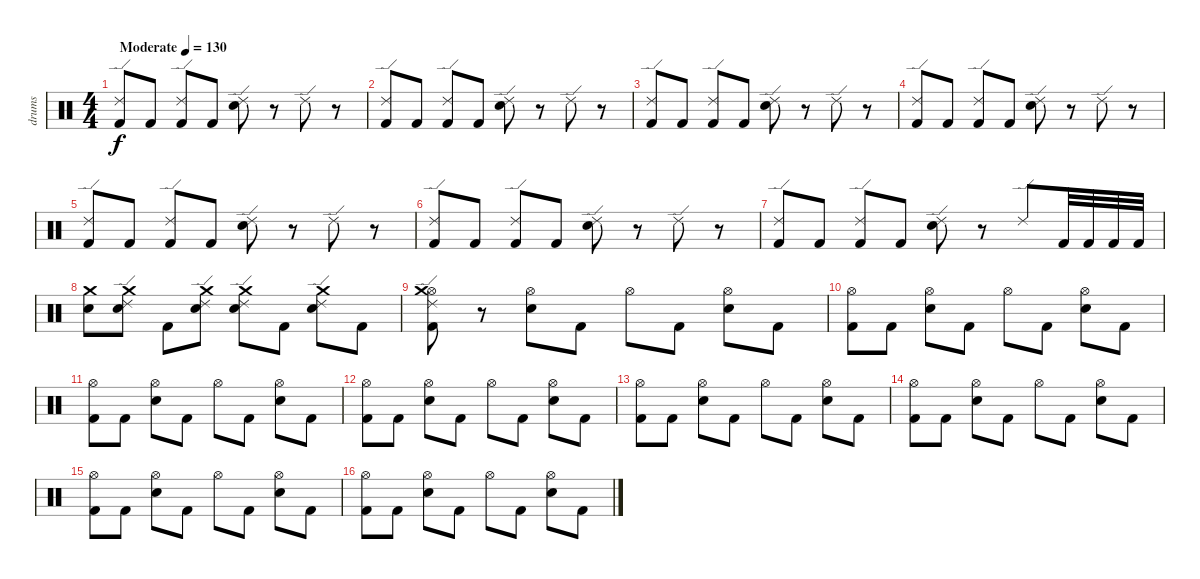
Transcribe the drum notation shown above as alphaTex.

\track ("drums" "drums") {instrument percussion}
\staff {score}
\articulation defaults
\ts (4 4)
\tempo (130 "Moderate")
\clef neutral
\ks c
("Ride (edge) 2" "Kick (hit) 2").8{dy f} "Kick (hit) 2".8 ("Ride (edge) 2" "Kick (hit) 2").8 "Kick (hit) 2".8 ("Ride (edge) 2" "Snare (hit) 2").8 r.8 "Ride (edge) 2".8 r.8 |
("Ride (edge) 2" "Kick (hit) 2").8 "Kick (hit) 2".8 ("Ride (edge) 2" "Kick (hit) 2").8 "Kick (hit) 2".8 ("Ride (edge) 2" "Snare (hit) 2").8 r.8 "Ride (edge) 2".8 r.8 |
("Ride (edge) 2" "Kick (hit) 2").8 "Kick (hit) 2".8 ("Ride (edge) 2" "Kick (hit) 2").8 "Kick (hit) 2".8 ("Ride (edge) 2" "Snare (hit) 2").8 r.8 "Ride (edge) 2".8 r.8 |
("Ride (edge) 2" "Kick (hit) 2").8 "Kick (hit) 2".8 ("Ride (edge) 2" "Kick (hit) 2").8 "Kick (hit) 2".8 ("Ride (edge) 2" "Snare (hit) 2").8 r.8 "Ride (edge) 2".8 r.8 |
("Ride (edge) 2" "Kick (hit) 2").8 "Kick (hit) 2".8 ("Ride (edge) 2" "Kick (hit) 2").8 "Kick (hit) 2".8 ("Ride (edge) 2" "Snare (hit) 2").8 r.8 "Ride (edge) 2".8 r.8 |
("Ride (edge) 2" "Kick (hit) 2").8 "Kick (hit) 2".8 ("Ride (edge) 2" "Kick (hit) 2").8 "Kick (hit) 2".8 ("Ride (edge) 2" "Snare (hit) 2").8 r.8 "Ride (edge) 2".8 r.8 |
("Ride (edge) 2" "Kick (hit) 2").8 "Kick (hit) 2".8 ("Ride (edge) 2" "Kick (hit) 2").8 "Kick (hit) 2".8 ("Ride (edge) 2" "Snare (hit) 2").8 r.8 "Ride (edge) 2".8 "Kick (hit) 2".32 "Kick (hit) 2".32 "Kick (hit) 2".32 "Kick (hit) 2".32 |
("Crash medium (hit)" "Snare (hit) 2").8 ("Crash medium (hit)" "Ride (edge) 2" "Snare (hit) 2").8 "Kick (hit) 2".8 ("Crash medium (hit)" "Ride (edge) 2" "Snare (hit) 2").8 ("Ride (edge) 2" "Crash medium (hit)" "Snare (hit) 2").8 "Kick (hit) 2".8 ("Crash medium (hit)" "Ride (edge) 2" "Snare (hit) 2").8 "Kick (hit) 2".8 |
("Hi-Hat (open)" "Crash medium (hit)" "Ride (edge) 2" "Kick (hit) 2").8 r.8 ("Hi-Hat (open)" "Snare (hit) 2").8 "Kick (hit) 2".8 "Hi-Hat (open)".8 "Kick (hit) 2".8 ("Hi-Hat (open)" "Snare (hit) 2").8 "Kick (hit) 2".8 |
("Hi-Hat (open)" "Kick (hit) 2").8 "Kick (hit) 2".8 ("Hi-Hat (open)" "Snare (hit) 2").8 "Kick (hit) 2".8 "Hi-Hat (open)".8 "Kick (hit) 2".8 ("Hi-Hat (open)" "Snare (hit) 2").8 "Kick (hit) 2".8 |
("Hi-Hat (open)" "Kick (hit) 2").8 "Kick (hit) 2".8 ("Hi-Hat (open)" "Snare (hit) 2").8 "Kick (hit) 2".8 "Hi-Hat (open)".8 "Kick (hit) 2".8 ("Hi-Hat (open)" "Snare (hit) 2").8 "Kick (hit) 2".8 |
("Hi-Hat (open)" "Kick (hit) 2").8 "Kick (hit) 2".8 ("Hi-Hat (open)" "Snare (hit) 2").8 "Kick (hit) 2".8 "Hi-Hat (open)".8 "Kick (hit) 2".8 ("Hi-Hat (open)" "Snare (hit) 2").8 "Kick (hit) 2".8 |
("Hi-Hat (open)" "Kick (hit) 2").8 "Kick (hit) 2".8 ("Hi-Hat (open)" "Snare (hit) 2").8 "Kick (hit) 2".8 "Hi-Hat (open)".8 "Kick (hit) 2".8 ("Hi-Hat (open)" "Snare (hit) 2").8 "Kick (hit) 2".8 |
("Hi-Hat (open)" "Kick (hit) 2").8 "Kick (hit) 2".8 ("Hi-Hat (open)" "Snare (hit) 2").8 "Kick (hit) 2".8 "Hi-Hat (open)".8 "Kick (hit) 2".8 ("Hi-Hat (open)" "Snare (hit) 2").8 "Kick (hit) 2".8 |
("Hi-Hat (open)" "Kick (hit) 2").8 "Kick (hit) 2".8 ("Hi-Hat (open)" "Snare (hit) 2").8 "Kick (hit) 2".8 "Hi-Hat (open)".8 "Kick (hit) 2".8 ("Hi-Hat (open)" "Snare (hit) 2").8 "Kick (hit) 2".8 |
("Hi-Hat (open)" "Kick (hit) 2").8 "Kick (hit) 2".8 ("Hi-Hat (open)" "Snare (hit) 2").8 "Kick (hit) 2".8 "Hi-Hat (open)".8 "Kick (hit) 2".8 ("Hi-Hat (open)" "Snare (hit) 2").8 "Kick (hit) 2".8
